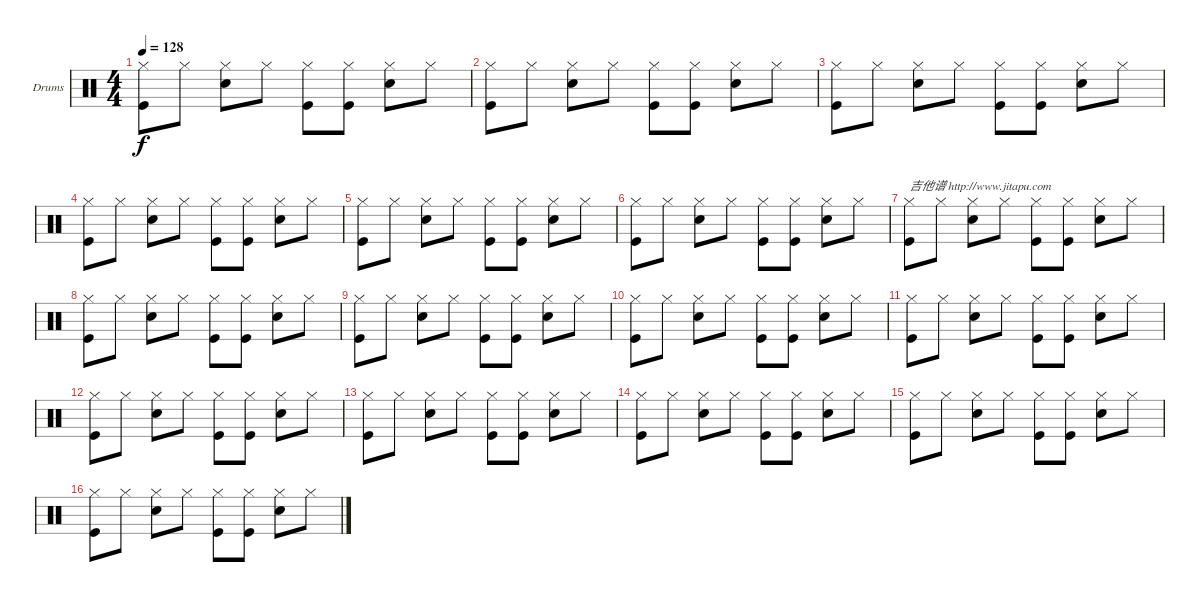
\bracketExtendMode groupsimilarinstruments
\firstSystemTrackNameOrientation horizontal
\otherSystemsTrackNameOrientation horizontal
\track ("Drumkit" "Drums") {instrument percussion}
\staff {score}
\articulation defaults
\ts (4 4)
\tempo 128
\clef neutral
\ks c
("Hi-Hat (closed)" "Kick (hit)").8{dy f} "Hi-Hat (closed)".8 ("Hi-Hat (closed)" "Snare (hit) 2").8 "Hi-Hat (closed)".8 ("Hi-Hat (closed)" "Kick (hit)").8 ("Hi-Hat (closed)" "Kick (hit)").8 ("Hi-Hat (closed)" "Snare (hit) 2").8 "Hi-Hat (closed)".8 |
("Hi-Hat (closed)" "Kick (hit)").8 "Hi-Hat (closed)".8 ("Hi-Hat (closed)" "Snare (hit) 2").8 "Hi-Hat (closed)".8 ("Hi-Hat (closed)" "Kick (hit)").8 ("Hi-Hat (closed)" "Kick (hit)").8 ("Hi-Hat (closed)" "Snare (hit) 2").8 "Hi-Hat (closed)".8 |
("Hi-Hat (closed)" "Kick (hit)").8 "Hi-Hat (closed)".8 ("Hi-Hat (closed)" "Snare (hit) 2").8 "Hi-Hat (closed)".8 ("Hi-Hat (closed)" "Kick (hit)").8 ("Hi-Hat (closed)" "Kick (hit)").8 ("Hi-Hat (closed)" "Snare (hit) 2").8 "Hi-Hat (closed)".8 |
("Hi-Hat (closed)" "Kick (hit)").8 "Hi-Hat (closed)".8 ("Hi-Hat (closed)" "Snare (hit) 2").8 "Hi-Hat (closed)".8 ("Hi-Hat (closed)" "Kick (hit)").8 ("Hi-Hat (closed)" "Kick (hit)").8 ("Hi-Hat (closed)" "Snare (hit) 2").8 "Hi-Hat (closed)".8 |
("Hi-Hat (closed)" "Kick (hit)").8 "Hi-Hat (closed)".8 ("Hi-Hat (closed)" "Snare (hit) 2").8 "Hi-Hat (closed)".8 ("Hi-Hat (closed)" "Kick (hit)").8 ("Hi-Hat (closed)" "Kick (hit)").8 ("Hi-Hat (closed)" "Snare (hit) 2").8 "Hi-Hat (closed)".8 |
("Hi-Hat (closed)" "Kick (hit)").8 "Hi-Hat (closed)".8 ("Hi-Hat (closed)" "Snare (hit) 2").8 "Hi-Hat (closed)".8 ("Hi-Hat (closed)" "Kick (hit)").8 ("Hi-Hat (closed)" "Kick (hit)").8 ("Hi-Hat (closed)" "Snare (hit) 2").8 "Hi-Hat (closed)".8 |
("Hi-Hat (closed)" "Kick (hit)").8{txt "吉他谱 http://www.jitapu.com"} "Hi-Hat (closed)".8 ("Hi-Hat (closed)" "Snare (hit) 2").8 "Hi-Hat (closed)".8 ("Hi-Hat (closed)" "Kick (hit)").8 ("Hi-Hat (closed)" "Kick (hit)").8 ("Hi-Hat (closed)" "Snare (hit) 2").8 "Hi-Hat (closed)".8 |
("Hi-Hat (closed)" "Kick (hit)").8 "Hi-Hat (closed)".8 ("Hi-Hat (closed)" "Snare (hit) 2").8 "Hi-Hat (closed)".8 ("Hi-Hat (closed)" "Kick (hit)").8 ("Hi-Hat (closed)" "Kick (hit)").8 ("Hi-Hat (closed)" "Snare (hit) 2").8 "Hi-Hat (closed)".8 |
("Hi-Hat (closed)" "Kick (hit)").8 "Hi-Hat (closed)".8 ("Hi-Hat (closed)" "Snare (hit) 2").8 "Hi-Hat (closed)".8 ("Hi-Hat (closed)" "Kick (hit)").8 ("Hi-Hat (closed)" "Kick (hit)").8 ("Hi-Hat (closed)" "Snare (hit) 2").8 "Hi-Hat (closed)".8 |
("Hi-Hat (closed)" "Kick (hit)").8 "Hi-Hat (closed)".8 ("Hi-Hat (closed)" "Snare (hit) 2").8 "Hi-Hat (closed)".8 ("Hi-Hat (closed)" "Kick (hit)").8 ("Hi-Hat (closed)" "Kick (hit)").8 ("Hi-Hat (closed)" "Snare (hit) 2").8 "Hi-Hat (closed)".8 |
("Hi-Hat (closed)" "Kick (hit)").8 "Hi-Hat (closed)".8 ("Hi-Hat (closed)" "Snare (hit) 2").8 "Hi-Hat (closed)".8 ("Hi-Hat (closed)" "Kick (hit)").8 ("Hi-Hat (closed)" "Kick (hit)").8 ("Hi-Hat (closed)" "Snare (hit) 2").8 "Hi-Hat (closed)".8 |
("Hi-Hat (closed)" "Kick (hit)").8 "Hi-Hat (closed)".8 ("Hi-Hat (closed)" "Snare (hit) 2").8 "Hi-Hat (closed)".8 ("Hi-Hat (closed)" "Kick (hit)").8 ("Hi-Hat (closed)" "Kick (hit)").8 ("Hi-Hat (closed)" "Snare (hit) 2").8 "Hi-Hat (closed)".8 |
("Hi-Hat (closed)" "Kick (hit)").8 "Hi-Hat (closed)".8 ("Hi-Hat (closed)" "Snare (hit) 2").8 "Hi-Hat (closed)".8 ("Hi-Hat (closed)" "Kick (hit)").8 ("Hi-Hat (closed)" "Kick (hit)").8 ("Hi-Hat (closed)" "Snare (hit) 2").8 "Hi-Hat (closed)".8 |
("Hi-Hat (closed)" "Kick (hit)").8 "Hi-Hat (closed)".8 ("Hi-Hat (closed)" "Snare (hit) 2").8 "Hi-Hat (closed)".8 ("Hi-Hat (closed)" "Kick (hit)").8 ("Hi-Hat (closed)" "Kick (hit)").8 ("Hi-Hat (closed)" "Snare (hit) 2").8 "Hi-Hat (closed)".8 |
("Hi-Hat (closed)" "Kick (hit)").8 "Hi-Hat (closed)".8 ("Hi-Hat (closed)" "Snare (hit) 2").8 "Hi-Hat (closed)".8 ("Hi-Hat (closed)" "Kick (hit)").8 ("Hi-Hat (closed)" "Kick (hit)").8 ("Hi-Hat (closed)" "Snare (hit) 2").8 "Hi-Hat (closed)".8 |
("Hi-Hat (closed)" "Kick (hit)").8 "Hi-Hat (closed)".8 ("Hi-Hat (closed)" "Snare (hit) 2").8 "Hi-Hat (closed)".8 ("Hi-Hat (closed)" "Kick (hit)").8 ("Hi-Hat (closed)" "Kick (hit)").8 ("Hi-Hat (closed)" "Snare (hit) 2").8 "Hi-Hat (closed)".8
